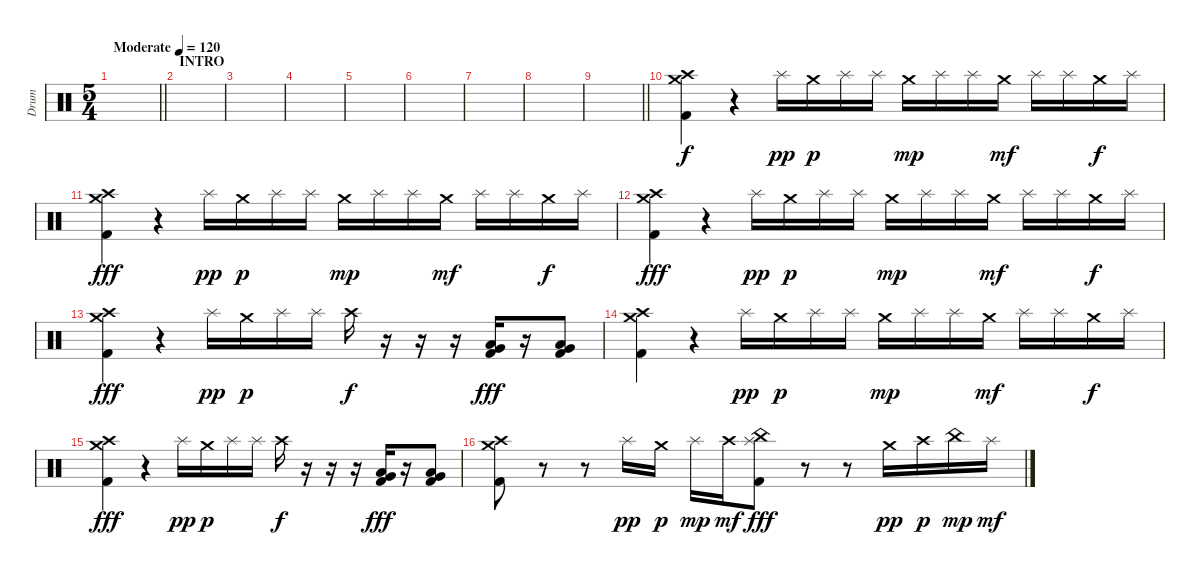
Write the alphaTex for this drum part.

\track ("Drum" "Drum") {instrument percussion}
\staff {score}
\articulation defaults
\ts (5 4)
\tempo (120 "Moderate")
\clef neutral
\barLineRight lightlight
\ks c
|
\section ("" "INTRO")
|
|
|
|
|
|
|
\barLineRight lightlight
|
("Kick (hit) 2" "Crash medium (hit)" "Crash high (hit)").4 r.4 "Splash (hit)".16{dy pp} "Crash medium (hit)".16{dy p} "Splash (hit)".16 "Splash (hit)".16 "Crash medium (hit)".16{dy mp} "Splash (hit)".16 "Splash (hit)".16 "Crash medium (hit)".16{dy mf} "Splash (hit)".16 "Splash (hit)".16 "Crash medium (hit)".16{dy f} "Splash (hit)".16 |
("Kick (hit) 2" "Crash medium (hit)" "Crash high (hit)").4{dy fff} r.4 "Splash (hit)".16{dy pp} "Crash medium (hit)".16{dy p} "Splash (hit)".16 "Splash (hit)".16 "Crash medium (hit)".16{dy mp} "Splash (hit)".16 "Splash (hit)".16 "Crash medium (hit)".16{dy mf} "Splash (hit)".16 "Splash (hit)".16 "Crash medium (hit)".16{dy f} "Splash (hit)".16 |
("Kick (hit) 2" "Crash medium (hit)" "Crash high (hit)").4{dy fff} r.4 "Splash (hit)".16{dy pp} "Crash medium (hit)".16{dy p} "Splash (hit)".16 "Splash (hit)".16 "Crash medium (hit)".16{dy mp} "Splash (hit)".16 "Splash (hit)".16 "Crash medium (hit)".16{dy mf} "Splash (hit)".16 "Splash (hit)".16 "Crash medium (hit)".16{dy f} "Splash (hit)".16 |
("Kick (hit) 2" "Crash medium (hit)" "Crash high (hit)").4{dy fff} r.4 "Splash (hit)".16{dy pp} "Crash medium (hit)".16{dy p} "Splash (hit)".16 "Splash (hit)".16 "Crash high (hit)".16{dy f} r.16 r.16 r.16 ("Low Floor Tom (hit)" "Very Low Tom (hit)" "Kick (hit) 2").16{dy fff} r.16 ("Low Floor Tom (hit)" "Very Low Tom (hit)" "Kick (hit) 2").8 |
("Kick (hit) 2" "Crash medium (hit)" "Crash high (hit)").4 r.4 "Splash (hit)".16{dy pp} "Crash medium (hit)".16{dy p} "Splash (hit)".16 "Splash (hit)".16 "Crash medium (hit)".16{dy mp} "Splash (hit)".16 "Splash (hit)".16 "Crash medium (hit)".16{dy mf} "Splash (hit)".16 "Splash (hit)".16 "Crash medium (hit)".16{dy f} "Splash (hit)".16 |
("Kick (hit) 2" "Crash medium (hit)" "Crash high (hit)").4{dy fff} r.4 "Splash (hit)".16{dy pp} "Crash medium (hit)".16{dy p} "Splash (hit)".16 "Splash (hit)".16 "Crash high (hit)".16{dy f} r.16 r.16 r.16 ("Low Floor Tom (hit)" "Very Low Tom (hit)" "Kick (hit) 2").16{dy fff} r.16 ("Low Floor Tom (hit)" "Very Low Tom (hit)" "Kick (hit) 2").8 |
("Kick (hit) 2" "Crash medium (hit)" "Crash high (hit)").8 r.8 r.8 "Splash (hit)".16{dy pp} "Crash medium (hit)".16{dy p} "Splash (hit)".16{dy mp} "Crash high (hit)".16{dy mf} ("Kick (hit) 2" "Splash (hit)" "China (hit)").8{dy fff} r.8 r.8 "Crash medium (hit)".16{dy pp} "Crash high (hit)".16{dy p} "China (hit)".16{dy mp} "Splash (hit)".16{dy mf}
